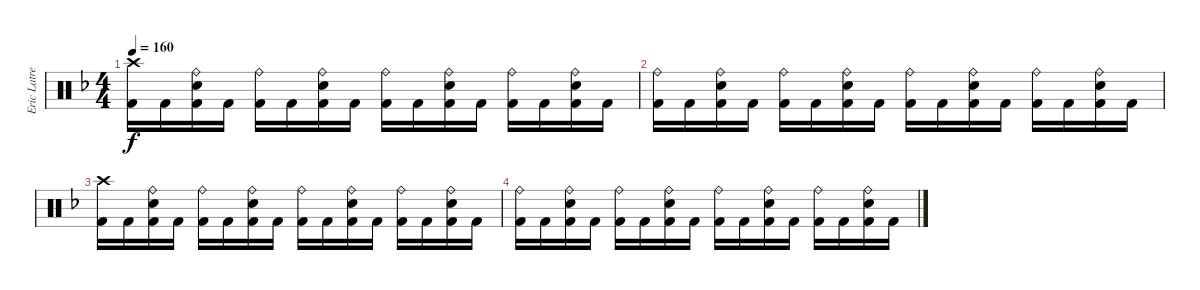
\track ("Eric Latreille" "Eric Latre") {instrument percussion}
\staff {score}
\articulation defaults
\ts (4 4)
\tempo 160
\clef neutral
\ks dminor
("Crash high (hit)" "Kick (hit) 2").16{dy f} "Kick (hit) 2".16 ("Ride (bell)" "Snare (hit) 2" "Kick (hit) 2").16 "Kick (hit) 2".16 ("Ride (bell)" "Kick (hit) 2").16 "Kick (hit) 2".16 ("Ride (bell)" "Snare (hit) 2" "Kick (hit) 2").16 "Kick (hit) 2".16 ("Ride (bell)" "Kick (hit) 2").16 "Kick (hit) 2".16 ("Ride (bell)" "Snare (hit) 2" "Kick (hit) 2").16 "Kick (hit) 2".16 ("Ride (bell)" "Kick (hit) 2").16 "Kick (hit) 2".16 ("Ride (bell)" "Snare (hit) 2" "Kick (hit) 2").16 "Kick (hit) 2".16 |
("Ride (bell)" "Kick (hit) 2").16 "Kick (hit) 2".16 ("Ride (bell)" "Snare (hit) 2" "Kick (hit) 2").16 "Kick (hit) 2".16 ("Ride (bell)" "Kick (hit) 2").16 "Kick (hit) 2".16 ("Ride (bell)" "Snare (hit) 2" "Kick (hit) 2").16 "Kick (hit) 2".16 ("Ride (bell)" "Kick (hit) 2").16 "Kick (hit) 2".16 ("Ride (bell)" "Snare (hit) 2" "Kick (hit) 2").16 "Kick (hit) 2".16 ("Ride (bell)" "Kick (hit) 2").16 "Kick (hit) 2".16 ("Ride (bell)" "Snare (hit) 2" "Kick (hit) 2").16 "Kick (hit) 2".16 |
("Crash high (hit)" "Kick (hit) 2").16 "Kick (hit) 2".16 ("Ride (bell)" "Snare (hit) 2" "Kick (hit) 2").16 "Kick (hit) 2".16 ("Ride (bell)" "Kick (hit) 2").16 "Kick (hit) 2".16 ("Ride (bell)" "Snare (hit) 2" "Kick (hit) 2").16 "Kick (hit) 2".16 ("Ride (bell)" "Kick (hit) 2").16 "Kick (hit) 2".16 ("Ride (bell)" "Snare (hit) 2" "Kick (hit) 2").16 "Kick (hit) 2".16 ("Ride (bell)" "Kick (hit) 2").16 "Kick (hit) 2".16 ("Ride (bell)" "Snare (hit) 2" "Kick (hit) 2").16 "Kick (hit) 2".16 |
("Ride (bell)" "Kick (hit) 2").16 "Kick (hit) 2".16 ("Ride (bell)" "Snare (hit) 2" "Kick (hit) 2").16 "Kick (hit) 2".16 ("Ride (bell)" "Kick (hit) 2").16 "Kick (hit) 2".16 ("Ride (bell)" "Snare (hit) 2" "Kick (hit) 2").16 "Kick (hit) 2".16 ("Ride (bell)" "Kick (hit) 2").16 "Kick (hit) 2".16 ("Ride (bell)" "Snare (hit) 2" "Kick (hit) 2").16 "Kick (hit) 2".16 ("Ride (bell)" "Kick (hit) 2").16 "Kick (hit) 2".16 ("Ride (bell)" "Snare (hit) 2" "Kick (hit) 2").16 "Kick (hit) 2".16
